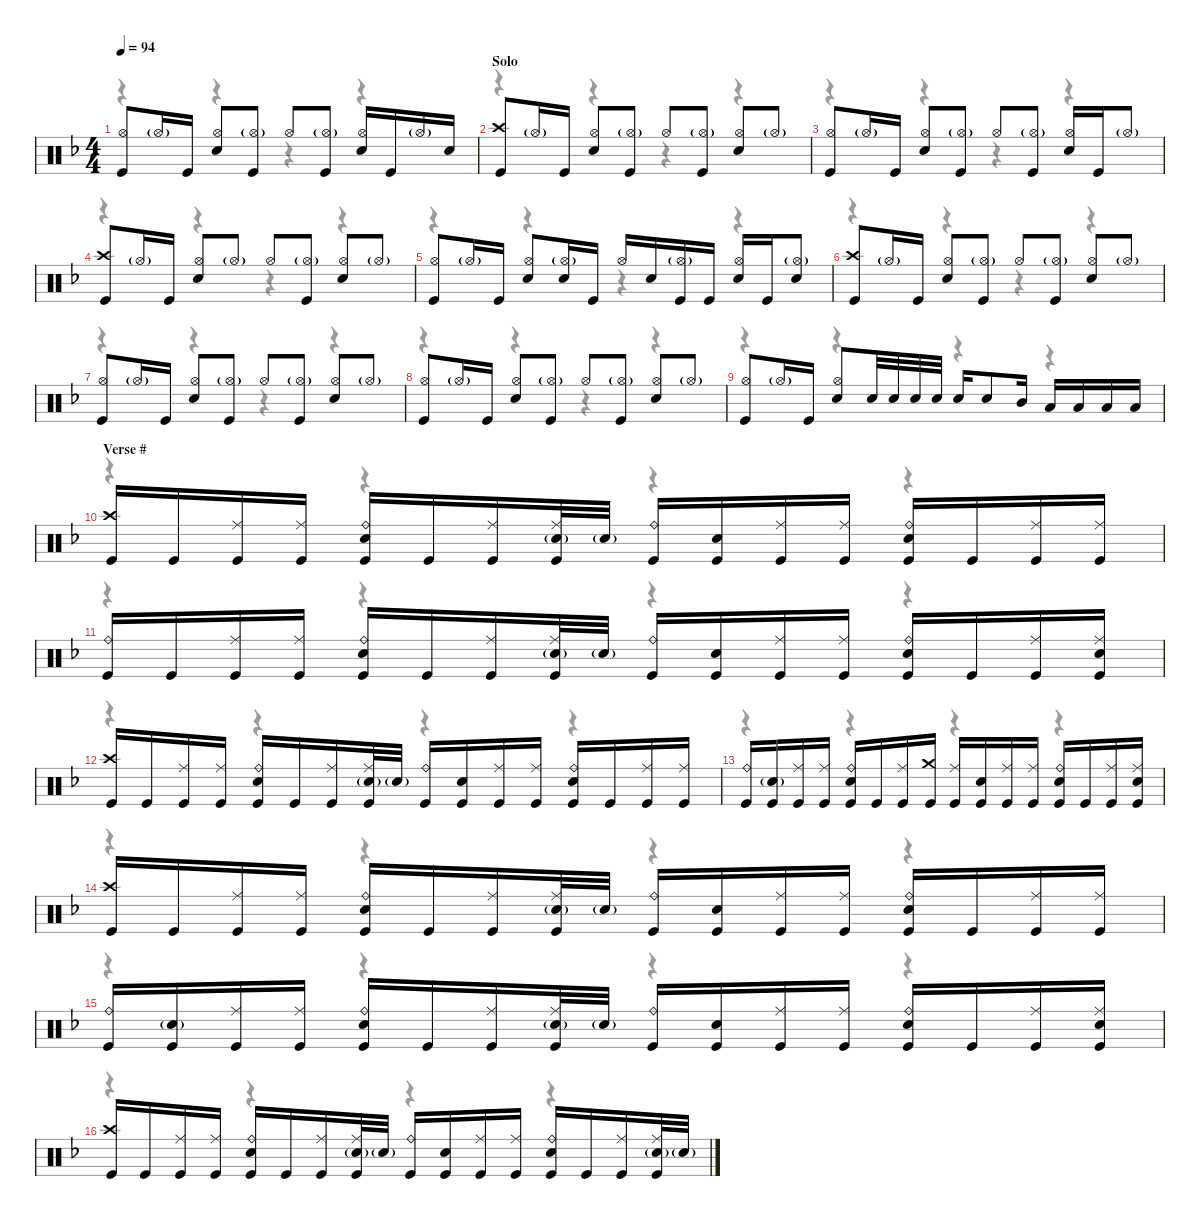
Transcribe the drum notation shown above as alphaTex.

\defaultSystemsLayout 4
\hideDynamics
\bracketExtendMode nobrackets
\singleTrackTrackNamePolicy hidden
\multiTrackTrackNamePolicy hidden
\otherSystemsTrackNameOrientation horizontal
\track ("M. Lopez" "drm.") {instrument percussion}
\staff {score}
\articulation defaults
\voice
\ts (4 4)
\tempo 94
\clef neutral
\ks dminor
("Hi-Hat (open)"{acc forcenatural} "Kick (hit)"{acc forcenatural}).8{dy f beam Up} "Hi-Hat (open)"{g acc forcenatural}.16{dy ff beam Up} "Kick (hit)"{acc forcenatural}.16{dy f beam Up} ("Hi-Hat (open)"{acc forcenatural} "Snare (hit) 2"{acc forcenatural}).8{beam Up} ("Hi-Hat (open)"{g acc forcenatural} "Kick (hit)"{acc forcenatural}).8{beam Up} "Hi-Hat (open)"{acc forcenatural}.8{beam Up} ("Hi-Hat (open)"{g acc forcenatural} "Kick (hit)"{acc forcenatural}).8{beam Up} ("Hi-Hat (open)"{acc forcenatural} "Snare (hit) 2"{acc forcenatural}).16{beam Up} "Kick (hit)"{acc forcenatural}.16{dy fff beam Up} "Hi-Hat (open)"{g acc forcenatural}.16{dy ff beam Up} "Snare (hit) 2"{acc forcenatural}.16{dy f beam Up} |
\section ("" "Solo")
("Crash high (hit)"{acc forcenatural} "Kick (hit)"{acc forcenatural}).8{beam Up} "Hi-Hat (open)"{g acc forcenatural}.16{dy ff beam Up} "Kick (hit)"{acc forcenatural}.16{dy f beam Up} ("Hi-Hat (open)"{acc forcenatural} "Snare (hit) 2"{acc forcenatural}).8{beam Up} ("Hi-Hat (open)"{g acc forcenatural} "Kick (hit)"{acc forcenatural}).8{beam Up} "Hi-Hat (open)"{acc forcenatural}.8{beam Up} ("Hi-Hat (open)"{g acc forcenatural} "Kick (hit)"{acc forcenatural}).8{beam Up} ("Hi-Hat (open)"{acc forcenatural} "Snare (hit) 2"{acc forcenatural}).8{beam Up} "Hi-Hat (open)"{g acc forcenatural}.8{dy ff beam Up} |
("Hi-Hat (open)"{acc forcenatural} "Kick (hit)"{acc forcenatural}).8{dy f beam Up} "Hi-Hat (open)"{g acc forcenatural}.16{dy ff beam Up} "Kick (hit)"{acc forcenatural}.16{dy f beam Up} ("Hi-Hat (open)"{acc forcenatural} "Snare (hit) 2"{acc forcenatural}).8{beam Up} ("Hi-Hat (open)"{g acc forcenatural} "Kick (hit)"{acc forcenatural}).8{beam Up} "Hi-Hat (open)"{acc forcenatural}.8{beam Up} ("Hi-Hat (open)"{g acc forcenatural} "Kick (hit)"{acc forcenatural}).8{beam Up} ("Hi-Hat (open)"{acc forcenatural} "Snare (hit) 2"{acc forcenatural}).16{beam Up} "Kick (hit)"{acc forcenatural}.16{dy fff beam Up} "Hi-Hat (open)"{g acc forcenatural}.8{dy ff beam Up} |
("Crash high (hit)"{acc forcenatural} "Kick (hit)"{acc forcenatural}).8{dy f beam Up} "Hi-Hat (open)"{g acc forcenatural}.16{dy ff beam Up} "Kick (hit)"{acc forcenatural}.16{dy f beam Up} ("Hi-Hat (open)"{acc forcenatural} "Snare (hit) 2"{acc forcenatural}).8{beam Up} "Hi-Hat (open)"{g acc forcenatural}.8{dy ff beam Up} "Hi-Hat (open)"{acc forcenatural}.8{dy f beam Up} ("Hi-Hat (open)"{g acc forcenatural} "Kick (hit)"{acc forcenatural}).8{beam Up} ("Hi-Hat (open)"{acc forcenatural} "Snare (hit) 2"{acc forcenatural}).8{beam Up} "Hi-Hat (open)"{g acc forcenatural}.8{dy ff beam Up} |
("Hi-Hat (open)"{acc forcenatural} "Kick (hit)"{acc forcenatural}).8{dy f beam Up} "Hi-Hat (open)"{g acc forcenatural}.16{dy ff beam Up} "Kick (hit)"{acc forcenatural}.16{dy f beam Up} ("Hi-Hat (open)"{acc forcenatural} "Snare (hit) 2"{acc forcenatural}).8{beam Up} ("Hi-Hat (open)"{g acc forcenatural} "Snare (hit) 2"{acc forcenatural}).16{beam Up} "Kick (hit)"{acc forcenatural}.16{beam Up} "Hi-Hat (open)"{acc forcenatural}.16{beam Up} "Snare (hit) 2"{acc forcenatural}.16{beam Up} ("Hi-Hat (open)"{g acc forcenatural} "Kick (hit)"{acc forcenatural}).16{beam Up} "Kick (hit)"{acc forcenatural}.16{beam Up} ("Hi-Hat (open)"{acc forcenatural} "Snare (hit) 2"{acc forcenatural}).16{beam Up} "Kick (hit)"{acc forcenatural}.16{beam Up} ("Hi-Hat (open)"{g acc forcenatural} "Snare (hit) 2"{acc forcenatural}).8{beam Up} |
("Crash high (hit)"{acc forcenatural} "Kick (hit)"{acc forcenatural}).8{dy mf beam Up} "Hi-Hat (open)"{g acc forcenatural}.16{dy ff beam Up} "Kick (hit)"{acc forcenatural}.16{dy f beam Up} ("Hi-Hat (open)"{acc forcenatural} "Snare (hit) 2"{acc forcenatural}).8{beam Up} ("Hi-Hat (open)"{g acc forcenatural} "Kick (hit)"{acc forcenatural}).8{beam Up} "Hi-Hat (open)"{acc forcenatural}.8{beam Up} ("Hi-Hat (open)"{g acc forcenatural} "Kick (hit)"{acc forcenatural}).8{beam Up} ("Hi-Hat (open)"{acc forcenatural} "Snare (hit) 2"{acc forcenatural}).8{beam Up} "Hi-Hat (open)"{g acc forcenatural}.8{dy ff beam Up} |
("Hi-Hat (open)"{acc forcenatural} "Kick (hit)"{acc forcenatural}).8{dy f beam Up} "Hi-Hat (open)"{g acc forcenatural}.16{dy ff beam Up} "Kick (hit)"{acc forcenatural}.16{dy f beam Up} ("Hi-Hat (open)"{acc forcenatural} "Snare (hit) 2"{acc forcenatural}).8{beam Up} ("Hi-Hat (open)"{g acc forcenatural} "Kick (hit)"{acc forcenatural}).8{beam Up} "Hi-Hat (open)"{acc forcenatural}.8{beam Up} ("Hi-Hat (open)"{g acc forcenatural} "Kick (hit)"{acc forcenatural}).8{beam Up} ("Hi-Hat (open)"{acc forcenatural} "Snare (hit) 2"{acc forcenatural}).8{beam Up} "Hi-Hat (open)"{g acc forcenatural}.8{dy ff beam Up} |
("Hi-Hat (open)"{acc forcenatural} "Kick (hit)"{acc forcenatural}).8{dy f beam Up} "Hi-Hat (open)"{g acc forcenatural}.16{dy ff beam Up} "Kick (hit)"{acc forcenatural}.16{dy f beam Up} ("Hi-Hat (open)"{acc forcenatural} "Snare (hit) 2"{acc forcenatural}).8{beam Up} ("Hi-Hat (open)"{g acc forcenatural} "Kick (hit)"{acc forcenatural}).8{beam Up} "Hi-Hat (open)"{acc forcenatural}.8{beam Up} ("Hi-Hat (open)"{g acc forcenatural} "Kick (hit)"{acc forcenatural}).8{beam Up} ("Hi-Hat (open)"{acc forcenatural} "Snare (hit) 2"{acc forcenatural}).8{beam Up} "Hi-Hat (open)"{g acc forcenatural}.8{dy ff beam Up} |
("Hi-Hat (open)"{acc forcenatural} "Kick (hit)"{acc forcenatural}).8{dy f beam Up} "Hi-Hat (open)"{g acc forcenatural}.16{dy ff beam Up} "Kick (hit)"{acc forcenatural}.16{dy f beam Up} ("Hi-Hat (open)"{acc forcenatural} "Snare (hit) 2"{acc forcenatural}).8{beam Up} "Snare (hit) 2"{acc forcenatural}.32{dy mf beam Up} "Snare (hit) 2"{acc forcenatural}.32{beam Up} "Snare (hit) 2"{acc forcenatural}.32{beam Up} "Snare (hit) 2"{acc forcenatural}.32{beam Up} "Snare (hit) 2"{acc forcenatural}.16{dy f beam Up} "Snare (hit) 2"{acc forcenatural}.8{beam Up} "Mid Tom (hit)"{acc forcenatural}.16{dy mf beam Up} "Low Tom (hit)"{acc forcenatural}.16{beam Up} "Low Tom (hit)"{acc forcenatural}.16{beam Up} "Low Floor Tom (hit)"{acc forcenatural}.16{beam Up} "Low Floor Tom (hit)"{acc forcenatural}.16{beam Up} |
\section ("" "Verse #")
("Crash high (hit)"{acc forcenatural} "Kick (hit)"{acc forcenatural}).16{dy f beam Up} "Kick (hit)"{acc forcenatural}.16{beam Up} ("Ride (middle)"{acc forcenatural} "Kick (hit)"{acc forcenatural}).16{beam Up} ("Ride (middle)"{acc forcenatural} "Kick (hit)"{acc forcenatural}).16{beam Up} ("Ride (bell)"{acc forcenatural} "Snare (hit) 2"{acc forcenatural} "Kick (hit)"{acc forcenatural}).16{beam Up} "Kick (hit)"{acc forcenatural}.16{beam Up} ("Ride (middle)"{acc forcenatural} "Kick (hit)"{acc forcenatural}).16{beam Up} ("Ride (middle)"{acc forcenatural} "Snare (hit) 2"{g acc forcenatural} "Kick (hit)"{acc forcenatural}).32{beam Up} "Snare (hit) 2"{g acc forcenatural}.32{dy mf beam Up} ("Ride (bell)"{acc forcenatural} "Kick (hit)"{acc forcenatural}).16{dy f beam Up} ("Snare (hit) 2"{acc forcenatural} "Kick (hit)"{acc forcenatural}).16{beam Up} ("Ride (middle)"{acc forcenatural} "Kick (hit)"{acc forcenatural}).16{beam Up} ("Ride (middle)"{acc forcenatural} "Kick (hit)"{acc forcenatural}).16{beam Up} ("Ride (bell)"{acc forcenatural} "Snare (hit) 2"{acc forcenatural} "Kick (hit)"{acc forcenatural}).16{beam Up} "Kick (hit)"{acc forcenatural}.16{beam Up} ("Ride (middle)"{acc forcenatural} "Kick (hit)"{acc forcenatural}).16{beam Up} ("Ride (middle)"{acc forcenatural} "Kick (hit)"{acc forcenatural}).16{beam Up} |
("Ride (bell)"{acc forcenatural} "Kick (hit)"{acc forcenatural}).16{beam Up} "Kick (hit)"{acc forcenatural}.16{beam Up} ("Ride (middle)"{acc forcenatural} "Kick (hit)"{acc forcenatural}).16{beam Up} ("Ride (middle)"{acc forcenatural} "Kick (hit)"{acc forcenatural}).16{beam Up} ("Ride (bell)"{acc forcenatural} "Snare (hit) 2"{acc forcenatural} "Kick (hit)"{acc forcenatural}).16{beam Up} "Kick (hit)"{acc forcenatural}.16{beam Up} ("Ride (middle)"{acc forcenatural} "Kick (hit)"{acc forcenatural}).16{beam Up} ("Ride (middle)"{acc forcenatural} "Snare (hit) 2"{g acc forcenatural} "Kick (hit)"{acc forcenatural}).32{beam Up} "Snare (hit) 2"{g acc forcenatural}.32{dy mf beam Up} ("Ride (bell)"{acc forcenatural} "Kick (hit)"{acc forcenatural}).16{dy f beam Up} ("Snare (hit) 2"{acc forcenatural} "Kick (hit)"{acc forcenatural}).16{beam Up} ("Ride (middle)"{acc forcenatural} "Kick (hit)"{acc forcenatural}).16{beam Up} ("Ride (middle)"{acc forcenatural} "Kick (hit)"{acc forcenatural}).16{beam Up} ("Ride (bell)"{acc forcenatural} "Snare (hit) 2"{acc forcenatural} "Kick (hit)"{acc forcenatural}).16{beam Up} "Kick (hit)"{acc forcenatural}.16{beam Up} ("Ride (middle)"{acc forcenatural} "Kick (hit)"{acc forcenatural}).16{beam Up} ("Ride (middle)"{acc forcenatural} "Snare (hit) 2"{acc forcenatural} "Kick (hit)"{acc forcenatural}).16{beam Up} |
("Crash high (hit)"{acc forcenatural} "Kick (hit)"{acc forcenatural}).16{beam Up} "Kick (hit)"{acc forcenatural}.16{beam Up} ("Ride (middle)"{acc forcenatural} "Kick (hit)"{acc forcenatural}).16{beam Up} ("Ride (middle)"{acc forcenatural} "Kick (hit)"{acc forcenatural}).16{beam Up} ("Ride (bell)"{acc forcenatural} "Snare (hit) 2"{acc forcenatural} "Kick (hit)"{acc forcenatural}).16{beam Up} "Kick (hit)"{acc forcenatural}.16{beam Up} ("Ride (middle)"{acc forcenatural} "Kick (hit)"{acc forcenatural}).16{beam Up} ("Ride (middle)"{acc forcenatural} "Snare (hit) 2"{g acc forcenatural} "Kick (hit)"{acc forcenatural}).32{beam Up} "Snare (hit) 2"{g acc forcenatural}.32{dy mf beam Up} ("Ride (bell)"{acc forcenatural} "Kick (hit)"{acc forcenatural}).16{dy f beam Up} ("Snare (hit) 2"{acc forcenatural} "Kick (hit)"{acc forcenatural}).16{beam Up} ("Ride (middle)"{acc forcenatural} "Kick (hit)"{acc forcenatural}).16{beam Up} ("Ride (middle)"{acc forcenatural} "Kick (hit)"{acc forcenatural}).16{beam Up} ("Ride (bell)"{acc forcenatural} "Snare (hit) 2"{acc forcenatural} "Kick (hit)"{acc forcenatural}).16{beam Up} "Kick (hit)"{acc forcenatural}.16{beam Up} ("Ride (middle)"{acc forcenatural} "Kick (hit)"{acc forcenatural}).16{beam Up} ("Ride (middle)"{acc forcenatural} "Kick (hit)"{acc forcenatural}).16{beam Up} |
("Ride (bell)"{acc forcenatural} "Kick (hit)"{acc forcenatural}).16{beam Up} ("Snare (hit) 2"{g acc forcenatural} "Kick (hit)"{acc forcenatural}).16{beam Up} ("Ride (middle)"{acc forcenatural} "Kick (hit)"{acc forcenatural}).16{beam Up} ("Ride (middle)"{acc forcenatural} "Kick (hit)"{acc forcenatural}).16{beam Up} ("Ride (bell)"{acc forcenatural} "Snare (hit) 2"{acc forcenatural} "Kick (hit)"{acc forcenatural}).16{beam Up} "Kick (hit)"{acc forcenatural}.16{beam Up} ("Ride (middle)"{acc forcenatural} "Kick (hit)"{acc forcenatural}).16{beam Up} ("Crash medium (hit)"{acc forcenatural} "Kick (hit)"{acc forcenatural}).16{beam Up} ("Ride (middle)"{acc forcenatural} "Kick (hit)"{acc forcenatural}).16{beam Up} ("Snare (hit) 2"{acc forcenatural} "Kick (hit)"{acc forcenatural}).16{beam Up} ("Ride (middle)"{acc forcenatural} "Kick (hit)"{acc forcenatural}).16{beam Up} ("Ride (middle)"{acc forcenatural} "Kick (hit)"{acc forcenatural}).16{beam Up} ("Ride (bell)"{acc forcenatural} "Snare (hit) 2"{acc forcenatural} "Kick (hit)"{acc forcenatural}).16{beam Up} "Kick (hit)"{acc forcenatural}.16{beam Up} ("Ride (middle)"{acc forcenatural} "Kick (hit)"{acc forcenatural}).16{beam Up} ("Ride (middle)"{acc forcenatural} "Snare (hit) 2"{acc forcenatural} "Kick (hit)"{acc forcenatural}).16{beam Up} |
("Crash high (hit)"{acc forcenatural} "Kick (hit)"{acc forcenatural}).16{beam Up} "Kick (hit)"{acc forcenatural}.16{beam Up} ("Ride (middle)"{acc forcenatural} "Kick (hit)"{acc forcenatural}).16{beam Up} ("Ride (middle)"{acc forcenatural} "Kick (hit)"{acc forcenatural}).16{beam Up} ("Ride (bell)"{acc forcenatural} "Snare (hit) 2"{acc forcenatural} "Kick (hit)"{acc forcenatural}).16{beam Up} "Kick (hit)"{acc forcenatural}.16{beam Up} ("Ride (middle)"{acc forcenatural} "Kick (hit)"{acc forcenatural}).16{beam Up} ("Ride (middle)"{acc forcenatural} "Snare (hit) 2"{g acc forcenatural} "Kick (hit)"{acc forcenatural}).32{beam Up} "Snare (hit) 2"{g acc forcenatural}.32{dy mf beam Up} ("Ride (bell)"{acc forcenatural} "Kick (hit)"{acc forcenatural}).16{dy f beam Up} ("Snare (hit) 2"{acc forcenatural} "Kick (hit)"{acc forcenatural}).16{beam Up} ("Ride (middle)"{acc forcenatural} "Kick (hit)"{acc forcenatural}).16{beam Up} ("Ride (middle)"{acc forcenatural} "Kick (hit)"{acc forcenatural}).16{beam Up} ("Ride (bell)"{acc forcenatural} "Snare (hit) 2"{acc forcenatural} "Kick (hit)"{acc forcenatural}).16{beam Up} "Kick (hit)"{acc forcenatural}.16{beam Up} ("Ride (middle)"{acc forcenatural} "Kick (hit)"{acc forcenatural}).16{beam Up} ("Ride (middle)"{acc forcenatural} "Kick (hit)"{acc forcenatural}).16{beam Up} |
("Ride (bell)"{acc forcenatural} "Kick (hit)"{acc forcenatural}).16{beam Up} ("Snare (hit) 2"{g acc forcenatural} "Kick (hit)"{acc forcenatural}).16{beam Up} ("Ride (middle)"{acc forcenatural} "Kick (hit)"{acc forcenatural}).16{beam Up} ("Ride (middle)"{acc forcenatural} "Kick (hit)"{acc forcenatural}).16{beam Up} ("Ride (bell)"{acc forcenatural} "Snare (hit) 2"{acc forcenatural} "Kick (hit)"{acc forcenatural}).16{beam Up} "Kick (hit)"{acc forcenatural}.16{beam Up} ("Ride (middle)"{acc forcenatural} "Kick (hit)"{acc forcenatural}).16{beam Up} ("Ride (middle)"{acc forcenatural} "Snare (hit) 2"{g acc forcenatural} "Kick (hit)"{acc forcenatural}).32{beam Up} "Snare (hit) 2"{g acc forcenatural}.32{dy mf beam Up} ("Ride (bell)"{acc forcenatural} "Kick (hit)"{acc forcenatural}).16{dy f beam Up} ("Snare (hit) 2"{acc forcenatural} "Kick (hit)"{acc forcenatural}).16{beam Up} ("Ride (middle)"{acc forcenatural} "Kick (hit)"{acc forcenatural}).16{beam Up} ("Ride (middle)"{acc forcenatural} "Kick (hit)"{acc forcenatural}).16{beam Up} ("Ride (bell)"{acc forcenatural} "Snare (hit) 2"{acc forcenatural} "Kick (hit)"{acc forcenatural}).16{beam Up} "Kick (hit)"{acc forcenatural}.16{beam Up} ("Ride (middle)"{acc forcenatural} "Kick (hit)"{acc forcenatural}).16{beam Up} ("Ride (middle)"{acc forcenatural} "Snare (hit) 2"{acc forcenatural} "Kick (hit)"{acc forcenatural}).16{beam Up} |
("Crash high (hit)"{acc forcenatural} "Kick (hit)"{acc forcenatural}).16{beam Up} "Kick (hit)"{acc forcenatural}.16{beam Up} ("Ride (middle)"{acc forcenatural} "Kick (hit)"{acc forcenatural}).16{beam Up} ("Ride (middle)"{acc forcenatural} "Kick (hit)"{acc forcenatural}).16{beam Up} ("Ride (bell)"{acc forcenatural} "Snare (hit) 2"{acc forcenatural} "Kick (hit)"{acc forcenatural}).16{beam Up} "Kick (hit)"{acc forcenatural}.16{beam Up} ("Ride (middle)"{acc forcenatural} "Kick (hit)"{acc forcenatural}).16{beam Up} ("Ride (middle)"{acc forcenatural} "Snare (hit) 2"{g acc forcenatural} "Kick (hit)"{acc forcenatural}).32{beam Up} "Snare (hit) 2"{g acc forcenatural}.32{dy mf beam Up} ("Ride (bell)"{acc forcenatural} "Kick (hit)"{acc forcenatural}).16{dy f beam Up} ("Snare (hit) 2"{acc forcenatural} "Kick (hit)"{acc forcenatural}).16{beam Up} ("Ride (middle)"{acc forcenatural} "Kick (hit)"{acc forcenatural}).16{beam Up} ("Ride (middle)"{acc forcenatural} "Kick (hit)"{acc forcenatural}).16{beam Up} ("Ride (bell)"{acc forcenatural} "Snare (hit) 2"{acc forcenatural} "Kick (hit)"{acc forcenatural}).16{beam Up} "Kick (hit)"{acc forcenatural}.16{beam Up} ("Ride (middle)"{acc forcenatural} "Kick (hit)"{acc forcenatural}).16{beam Up} ("Ride (middle)"{acc forcenatural} "Snare (hit) 2"{g acc forcenatural} "Kick (hit)"{acc forcenatural}).32{beam Up} "Snare (hit) 2"{g acc forcenatural}.32{dy mf beam Up}
\voice
\clef neutral
\ottava regular
\simile none
\ks dminor
r.4{dy mf beam Down} r.4{beam Down} r.4{beam Down} r.4{beam Down} |
r.4{beam Down} r.4{beam Down} r.4{beam Down} r.4{beam Down} |
r.4{beam Down} r.4{beam Down} r.4{beam Down} r.4{beam Down} |
r.4{beam Down} r.4{beam Down} r.4{beam Down} r.4{beam Down} |
r.4{beam Down} r.4{beam Down} r.4{beam Down} r.4{beam Down} |
r.4{beam Down} r.4{beam Down} r.4{beam Down} r.4{beam Down} |
r.4{beam Down} r.4{beam Down} r.4{beam Down} r.4{beam Down} |
r.4{beam Down} r.4{beam Down} r.4{beam Down} r.4{beam Down} |
r.4{beam Down} r.4{beam Down} r.4{beam Down} r.4{beam Down} |
r.4{beam Down} r.4{beam Down} r.4{beam Down} r.4{beam Down} |
r.4{beam Down} r.4{beam Down} r.4{beam Down} r.4{beam Down} |
r.4{beam Down} r.4{beam Down} r.4{beam Down} r.4{beam Down} |
r.4{beam Down} r.4{beam Down} r.4{beam Down} r.4{beam Down} |
r.4{beam Down} r.4{beam Down} r.4{beam Down} r.4{beam Down} |
r.4{beam Down} r.4{beam Down} r.4{beam Down} r.4{beam Down} |
r.4{beam Down} r.4{beam Down} r.4{beam Down} r.4{beam Down}
